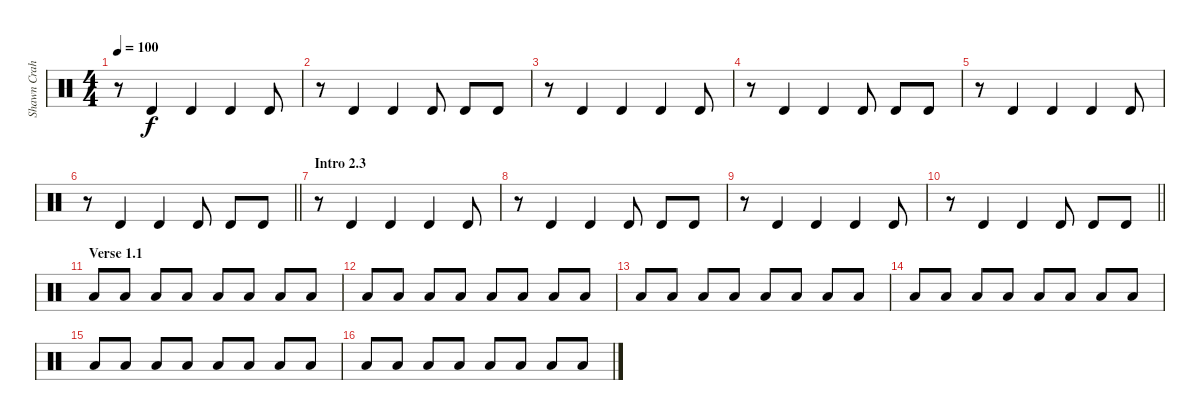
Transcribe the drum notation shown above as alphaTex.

\track ("Shawn Crahan" "Shawn Crah") {instrument percussion}
\staff {score}
\articulation defaults
\ts (4 4)
\tempo 100
\clef neutral
\ks c
r.8{dy f} "Timbale high (hit)".4 "Timbale high (hit)".4 "Timbale high (hit)".4 "Timbale high (hit)".8 |
r.8 "Timbale high (hit)".4 "Timbale high (hit)".4 "Timbale high (hit)".8 "Timbale high (hit)".8 "Timbale high (hit)".8 |
r.8 "Timbale high (hit)".4 "Timbale high (hit)".4 "Timbale high (hit)".4 "Timbale high (hit)".8 |
r.8 "Timbale high (hit)".4 "Timbale high (hit)".4 "Timbale high (hit)".8 "Timbale high (hit)".8 "Timbale high (hit)".8 |
r.8 "Timbale high (hit)".4 "Timbale high (hit)".4 "Timbale high (hit)".4 "Timbale high (hit)".8 |
\barLineRight lightlight
r.8 "Timbale high (hit)".4 "Timbale high (hit)".4 "Timbale high (hit)".8 "Timbale high (hit)".8 "Timbale high (hit)".8 |
\section ("" "Intro 2.3")
r.8 "Timbale high (hit)".4 "Timbale high (hit)".4 "Timbale high (hit)".4 "Timbale high (hit)".8 |
r.8 "Timbale high (hit)".4 "Timbale high (hit)".4 "Timbale high (hit)".8 "Timbale high (hit)".8 "Timbale high (hit)".8 |
r.8 "Timbale high (hit)".4 "Timbale high (hit)".4 "Timbale high (hit)".4 "Timbale high (hit)".8 |
\barLineRight lightlight
r.8 "Timbale high (hit)".4 "Timbale high (hit)".4 "Timbale high (hit)".8 "Timbale high (hit)".8 "Timbale high (hit)".8 |
\section ("" "Verse 1.1")
"Low Floor Tom (hit)".8 "Low Tom (hit)".8 "Low Floor Tom (hit)".8 "Low Tom (hit)".8 "Low Floor Tom (hit)".8 "Low Tom (hit)".8 "Low Floor Tom (hit)".8 "Low Tom (hit)".8 |
"Low Floor Tom (hit)".8 "Low Tom (hit)".8 "Low Floor Tom (hit)".8 "Low Tom (hit)".8 "Low Floor Tom (hit)".8 "Low Tom (hit)".8 "Low Floor Tom (hit)".8 "Low Tom (hit)".8 |
"Low Floor Tom (hit)".8 "Low Tom (hit)".8 "Low Floor Tom (hit)".8 "Low Tom (hit)".8 "Low Floor Tom (hit)".8 "Low Tom (hit)".8 "Low Floor Tom (hit)".8 "Low Tom (hit)".8 |
"Low Floor Tom (hit)".8 "Low Tom (hit)".8 "Low Floor Tom (hit)".8 "Low Tom (hit)".8 "Low Floor Tom (hit)".8 "Low Tom (hit)".8 "Low Floor Tom (hit)".8 "Low Tom (hit)".8 |
"Low Floor Tom (hit)".8 "Low Tom (hit)".8 "Low Floor Tom (hit)".8 "Low Tom (hit)".8 "Low Floor Tom (hit)".8 "Low Tom (hit)".8 "Low Floor Tom (hit)".8 "Low Tom (hit)".8 |
"Low Floor Tom (hit)".8 "Low Tom (hit)".8 "Low Floor Tom (hit)".8 "Low Tom (hit)".8 "Low Floor Tom (hit)".8 "Low Tom (hit)".8 "Low Floor Tom (hit)".8 "Low Tom (hit)".8
